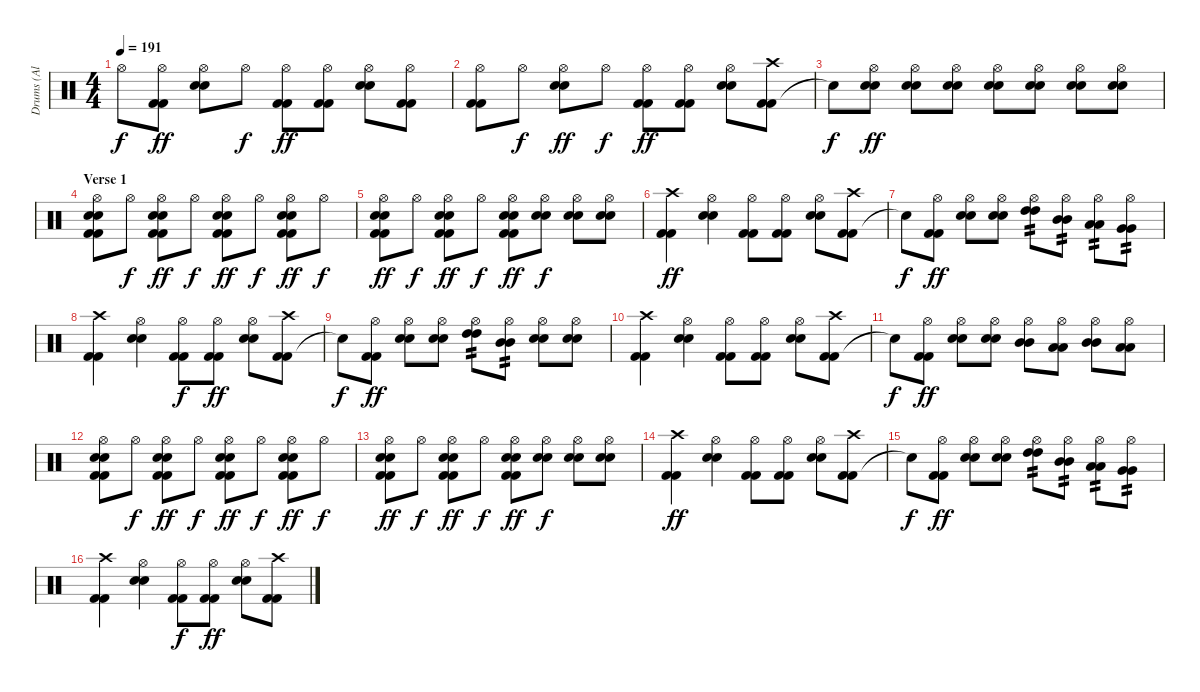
\track ("Drums (Al Sobrante)" "Drums (Al ") {instrument percussion}
\staff {score}
\articulation defaults
\ts (4 4)
\tempo 191
\clef neutral
\ks c "Hi-Hat (open)".8{dy f}
("Kick (hit) 2" "Kick (hit) 2" "Hi-Hat (open)").8{dy ff} ("Electric Snare (hit)" "Electric Snare (hit)" "Hi-Hat (open)").8 "Hi-Hat (open)".8{dy f} ("Kick (hit) 2" "Kick (hit) 2" "Hi-Hat (open)").8{dy ff} ("Kick (hit) 2" "Kick (hit) 2" "Hi-Hat (open)").8 ("Electric Snare (hit)" "Electric Snare (hit)" "Hi-Hat (open)").8 ("Kick (hit) 2" "Kick (hit) 2" "Hi-Hat (open)").8 |
("Kick (hit) 2" "Kick (hit) 2" "Hi-Hat (open)").8 "Hi-Hat (open)".8{dy f} ("Electric Snare (hit)" "Electric Snare (hit)" "Hi-Hat (open)").8{dy ff} "Hi-Hat (open)".8{dy f} ("Kick (hit) 2" "Kick (hit) 2" "Hi-Hat (open)").8{dy ff} ("Kick (hit) 2" "Kick (hit) 2" "Hi-Hat (open)").8 ("Electric Snare (hit)" "Electric Snare (hit)" "Hi-Hat (open)").8 ("Kick (hit) 2" "Kick (hit) 2" "Crash high (hit)").8 |
"Snare (hit)"{t}.8{dy f} ("Electric Snare (hit)" "Electric Snare (hit)" "Hi-Hat (open)").8{dy ff} ("Electric Snare (hit)" "Electric Snare (hit)" "Hi-Hat (open)").8 ("Electric Snare (hit)" "Electric Snare (hit)" "Hi-Hat (open)").8 ("Electric Snare (hit)" "Electric Snare (hit)" "Hi-Hat (open)").8 ("Electric Snare (hit)" "Electric Snare (hit)" "Hi-Hat (open)").8 ("Electric Snare (hit)" "Electric Snare (hit)" "Hi-Hat (open)").8 ("Electric Snare (hit)" "Electric Snare (hit)" "Hi-Hat (open)").8 |
\section ("" "Verse 1")
("Kick (hit) 2" "Kick (hit) 2" "Electric Snare (hit)" "Electric Snare (hit)" "Hi-Hat (open)").8 "Hi-Hat (open)".8{dy f} ("Kick (hit) 2" "Kick (hit) 2" "Electric Snare (hit)" "Electric Snare (hit)" "Hi-Hat (open)").8{dy ff} "Hi-Hat (open)".8{dy f} ("Kick (hit) 2" "Kick (hit) 2" "Electric Snare (hit)" "Electric Snare (hit)" "Hi-Hat (open)").8{dy ff} "Hi-Hat (open)".8{dy f} ("Kick (hit) 2" "Kick (hit) 2" "Electric Snare (hit)" "Electric Snare (hit)" "Hi-Hat (open)").8{dy ff} "Hi-Hat (open)".8{dy f} |
("Kick (hit) 2" "Kick (hit) 2" "Electric Snare (hit)" "Electric Snare (hit)" "Hi-Hat (open)").8{dy ff} "Hi-Hat (open)".8{dy f} ("Kick (hit) 2" "Kick (hit) 2" "Electric Snare (hit)" "Electric Snare (hit)" "Hi-Hat (open)").8{dy ff} "Hi-Hat (open)".8{dy f} ("Kick (hit) 2" "Kick (hit) 2" "Electric Snare (hit)" "Electric Snare (hit)" "Hi-Hat (open)").8{dy ff} ("Electric Snare (hit)" "Electric Snare (hit)" "Hi-Hat (open)").8{dy f} ("Electric Snare (hit)" "Electric Snare (hit)" "Hi-Hat (open)").8 ("Electric Snare (hit)" "Electric Snare (hit)" "Hi-Hat (open)").8 |
("Kick (hit) 2" "Kick (hit) 2" "Crash high (hit)").4{dy ff} ("Electric Snare (hit)" "Electric Snare (hit)" "Hi-Hat (open)").4 ("Kick (hit) 2" "Kick (hit) 2" "Hi-Hat (open)").8 ("Kick (hit) 2" "Kick (hit) 2" "Hi-Hat (open)").8 ("Electric Snare (hit)" "Electric Snare (hit)" "Hi-Hat (open)").8 ("Kick (hit) 2" "Kick (hit) 2" "Crash high (hit)").8 |
"Snare (hit)"{t}.8{dy f} ("Kick (hit) 2" "Kick (hit) 2" "Hi-Hat (open)").8{dy ff} ("Electric Snare (hit)" "Electric Snare (hit)" "Hi-Hat (open)").8 ("Electric Snare (hit)" "Electric Snare (hit)" "Hi-Hat (open)").8 ("High Tom (hit)" "High Tom (hit)" "Hi-Hat (open)").8{tp 2} ("Mid Tom (hit)" "Mid Tom (hit)" "Hi-Hat (open)").8{tp 2} ("Low Tom (hit)" "Low Tom (hit)" "Hi-Hat (open)").8{tp 2} ("Very Low Tom (hit)" "Very Low Tom (hit)" "Hi-Hat (open)").8{tp 2} |
("Kick (hit) 2" "Kick (hit) 2" "Crash high (hit)").4 ("Electric Snare (hit)" "Electric Snare (hit)" "Hi-Hat (open)").4 ("Kick (hit) 2" "Kick (hit) 2" "Hi-Hat (open)").8{dy f} ("Kick (hit) 2" "Kick (hit) 2" "Hi-Hat (open)").8{dy ff} ("Electric Snare (hit)" "Electric Snare (hit)" "Hi-Hat (open)").8 ("Kick (hit) 2" "Kick (hit) 2" "Crash high (hit)").8 |
"Snare (hit)"{t}.8{dy f} ("Kick (hit) 2" "Kick (hit) 2" "Hi-Hat (open)").8{dy ff} ("Electric Snare (hit)" "Electric Snare (hit)" "Hi-Hat (open)").8 ("Electric Snare (hit)" "Electric Snare (hit)" "Hi-Hat (open)").8 ("High Tom (hit)" "High Tom (hit)" "Hi-Hat (open)").8{tp 2} ("Mid Tom (hit)" "Mid Tom (hit)" "Hi-Hat (open)").8{tp 2} ("Electric Snare (hit)" "Electric Snare (hit)" "Hi-Hat (open)").8 ("Electric Snare (hit)" "Electric Snare (hit)" "Hi-Hat (open)").8 |
("Kick (hit) 2" "Kick (hit) 2" "Crash high (hit)").4 ("Electric Snare (hit)" "Electric Snare (hit)" "Hi-Hat (open)").4 ("Kick (hit) 2" "Kick (hit) 2" "Hi-Hat (open)").8 ("Kick (hit) 2" "Kick (hit) 2" "Hi-Hat (open)").8 ("Electric Snare (hit)" "Electric Snare (hit)" "Hi-Hat (open)").8 ("Kick (hit) 2" "Kick (hit) 2" "Crash high (hit)").8 |
"Snare (hit)"{t}.8{dy f} ("Kick (hit) 2" "Kick (hit) 2" "Hi-Hat (open)").8{dy ff} ("Electric Snare (hit)" "Electric Snare (hit)" "Hi-Hat (open)").8 ("Electric Snare (hit)" "Electric Snare (hit)" "Hi-Hat (open)").8 ("Mid Tom (hit)" "Mid Tom (hit)" "Hi-Hat (open)").8 ("Low Tom (hit)" "Low Tom (hit)" "Hi-Hat (open)").8 ("Mid Tom (hit)" "Mid Tom (hit)" "Hi-Hat (open)").8 ("Low Tom (hit)" "Low Tom (hit)" "Hi-Hat (open)").8 |
("Kick (hit) 2" "Kick (hit) 2" "Electric Snare (hit)" "Electric Snare (hit)" "Hi-Hat (open)").8 "Hi-Hat (open)".8{dy f} ("Kick (hit) 2" "Kick (hit) 2" "Electric Snare (hit)" "Electric Snare (hit)" "Hi-Hat (open)").8{dy ff} "Hi-Hat (open)".8{dy f} ("Kick (hit) 2" "Kick (hit) 2" "Electric Snare (hit)" "Electric Snare (hit)" "Hi-Hat (open)").8{dy ff} "Hi-Hat (open)".8{dy f} ("Kick (hit) 2" "Kick (hit) 2" "Electric Snare (hit)" "Electric Snare (hit)" "Hi-Hat (open)").8{dy ff} "Hi-Hat (open)".8{dy f} |
("Kick (hit) 2" "Kick (hit) 2" "Electric Snare (hit)" "Electric Snare (hit)" "Hi-Hat (open)").8{dy ff} "Hi-Hat (open)".8{dy f} ("Kick (hit) 2" "Kick (hit) 2" "Electric Snare (hit)" "Electric Snare (hit)" "Hi-Hat (open)").8{dy ff} "Hi-Hat (open)".8{dy f} ("Kick (hit) 2" "Kick (hit) 2" "Electric Snare (hit)" "Electric Snare (hit)" "Hi-Hat (open)").8{dy ff} ("Electric Snare (hit)" "Electric Snare (hit)" "Hi-Hat (open)").8{dy f} ("Electric Snare (hit)" "Electric Snare (hit)" "Hi-Hat (open)").8 ("Electric Snare (hit)" "Electric Snare (hit)" "Hi-Hat (open)").8 |
("Kick (hit) 2" "Kick (hit) 2" "Crash high (hit)").4{dy ff} ("Electric Snare (hit)" "Electric Snare (hit)" "Hi-Hat (open)").4 ("Kick (hit) 2" "Kick (hit) 2" "Hi-Hat (open)").8 ("Kick (hit) 2" "Kick (hit) 2" "Hi-Hat (open)").8 ("Electric Snare (hit)" "Electric Snare (hit)" "Hi-Hat (open)").8 ("Kick (hit) 2" "Kick (hit) 2" "Crash high (hit)").8 |
"Snare (hit)"{t}.8{dy f} ("Kick (hit) 2" "Kick (hit) 2" "Hi-Hat (open)").8{dy ff} ("Electric Snare (hit)" "Electric Snare (hit)" "Hi-Hat (open)").8 ("Electric Snare (hit)" "Electric Snare (hit)" "Hi-Hat (open)").8 ("High Tom (hit)" "High Tom (hit)" "Hi-Hat (open)").8{tp 2} ("Mid Tom (hit)" "Mid Tom (hit)" "Hi-Hat (open)").8{tp 2} ("Low Tom (hit)" "Low Tom (hit)" "Hi-Hat (open)").8{tp 2} ("Very Low Tom (hit)" "Very Low Tom (hit)" "Hi-Hat (open)").8{tp 2} |
("Kick (hit) 2" "Kick (hit) 2" "Crash high (hit)").4 ("Electric Snare (hit)" "Electric Snare (hit)" "Hi-Hat (open)").4 ("Kick (hit) 2" "Kick (hit) 2" "Hi-Hat (open)").8{dy f} ("Kick (hit) 2" "Kick (hit) 2" "Hi-Hat (open)").8{dy ff} ("Electric Snare (hit)" "Electric Snare (hit)" "Hi-Hat (open)").8 ("Kick (hit) 2" "Kick (hit) 2" "Crash high (hit)").8
